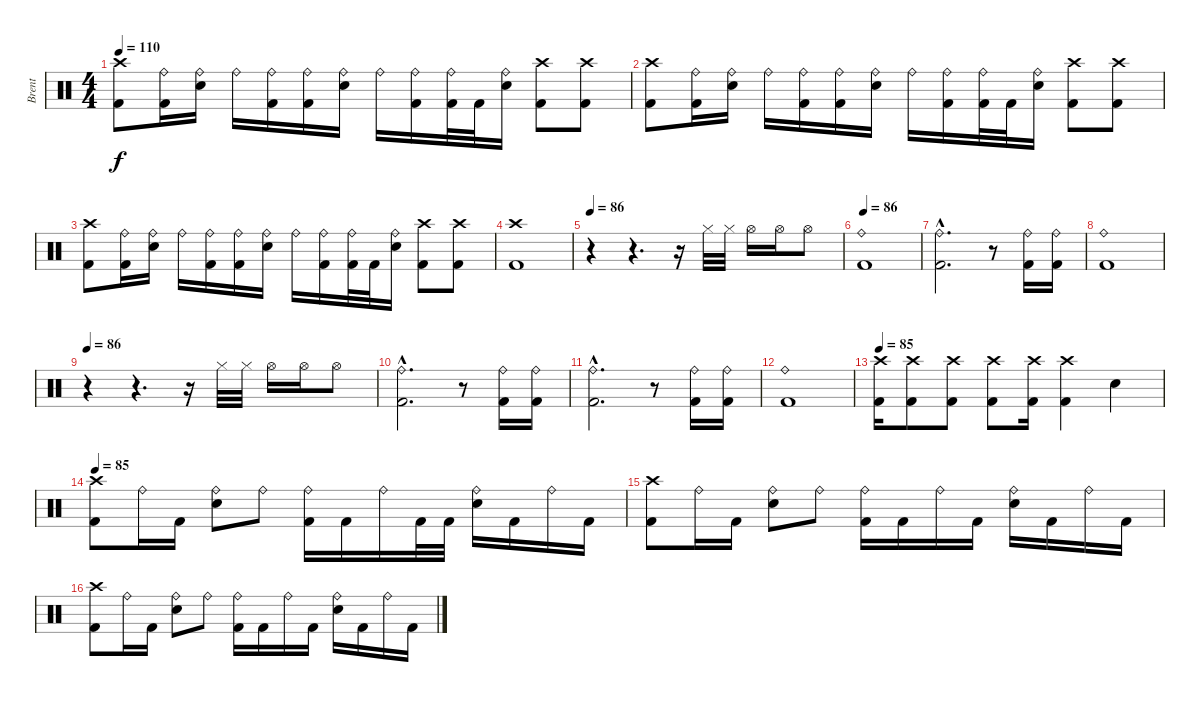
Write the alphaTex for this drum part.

\track ("Brent" "Brent") {instrument percussion}
\staff {score}
\articulation defaults
\ts (4 4)
\tempo 110
\clef neutral
\ks c
("Crash high (hit)" "Kick (hit) 2").8{dy f} ("Ride (bell)" "Kick (hit) 2").16 ("Ride (bell)" "Snare (hit) 2").16 "Ride (bell)".16 ("Ride (bell)" "Kick (hit) 2").16 ("Ride (bell)" "Kick (hit) 2").16 ("Ride (bell)" "Snare (hit) 2").16 "Ride (bell)".16 ("Ride (bell)" "Kick (hit) 2").16 ("Ride (bell)" "Kick (hit) 2").32 "Kick (hit) 2".32 ("Ride (bell)" "Snare (hit) 2").16 ("Crash high (hit)" "Kick (hit) 2").8 ("Crash high (hit)" "Kick (hit) 2").8 |
("Crash high (hit)" "Kick (hit) 2").8 ("Ride (bell)" "Kick (hit) 2").16 ("Ride (bell)" "Snare (hit) 2").16 "Ride (bell)".16 ("Ride (bell)" "Kick (hit) 2").16 ("Ride (bell)" "Kick (hit) 2").16 ("Ride (bell)" "Snare (hit) 2").16 "Ride (bell)".16 ("Ride (bell)" "Kick (hit) 2").16 ("Ride (bell)" "Kick (hit) 2").32 "Kick (hit) 2".32 ("Ride (bell)" "Snare (hit) 2").16 ("Crash high (hit)" "Kick (hit) 2").8 ("Crash high (hit)" "Kick (hit) 2").8 |
("Crash high (hit)" "Kick (hit) 2").8 ("Ride (bell)" "Kick (hit) 2").16 ("Ride (bell)" "Snare (hit) 2").16 "Ride (bell)".16 ("Ride (bell)" "Kick (hit) 2").16 ("Ride (bell)" "Kick (hit) 2").16 ("Ride (bell)" "Snare (hit) 2").16 "Ride (bell)".16 ("Ride (bell)" "Kick (hit) 2").16 ("Ride (bell)" "Kick (hit) 2").32 "Kick (hit) 2".32 ("Ride (bell)" "Snare (hit) 2").16 ("Crash high (hit)" "Kick (hit) 2").8 ("Crash high (hit)" "Kick (hit) 2").8 |
("Crash high (hit)" "Kick (hit) 2").1 |
\tempo 86
r.4 r.4{d} r.16 "Hi-Hat (closed)".32 "Hi-Hat (closed)".32 "Hi-Hat (open)".16 "Hi-Hat (open)".16 "Hi-Hat (open)".8 |
\tempo 86
("Ride (bell)" "Kick (hit) 2").1 |
("Ride (bell)"{hac} "Kick (hit) 2"{hac}).2{d} r.8 ("Ride (bell)" "Kick (hit) 2").16 ("Ride (bell)" "Kick (hit) 2").16 |
("Ride (bell)" "Kick (hit) 2").1 |
\tempo 86
r.4 r.4{d} r.16 "Hi-Hat (closed)".32 "Hi-Hat (closed)".32 "Hi-Hat (open)".16 "Hi-Hat (open)".16 "Hi-Hat (open)".8 |
("Ride (bell)"{hac} "Kick (hit) 2"{hac}).2{d} r.8 ("Ride (bell)" "Kick (hit) 2").16 ("Ride (bell)" "Kick (hit) 2").16 |
("Ride (bell)"{hac} "Kick (hit) 2"{hac}).2{d} r.8 ("Ride (bell)" "Kick (hit) 2").16 ("Ride (bell)" "Kick (hit) 2").16 |
("Ride (bell)" "Kick (hit) 2").1 |
\tempo 85
("Crash high (hit)" "Kick (hit) 2").16 ("Crash high (hit)" "Kick (hit) 2").8 ("Crash high (hit)" "Kick (hit) 2").8 ("Crash high (hit)" "Kick (hit) 2").8 ("Crash high (hit)" "Kick (hit) 2").16 ("Crash high (hit)" "Kick (hit) 2").4 "Snare (hit) 2".4 |
\tempo 85
("Crash high (hit)" "Kick (hit) 2").8 "Ride (bell)".16 "Kick (hit) 2".16 ("Ride (bell)" "Snare (hit) 2").8 "Ride (bell)".8 ("Ride (bell)" "Kick (hit) 2").16 "Kick (hit) 2".16 "Ride (bell)".16 "Kick (hit) 2".32 "Kick (hit) 2".32 ("Ride (bell)" "Snare (hit) 2").16 "Kick (hit) 2".16 "Ride (bell)".16 "Kick (hit) 2".16 |
("Crash high (hit)" "Kick (hit) 2").8 "Ride (bell)".16 "Kick (hit) 2".16 ("Ride (bell)" "Snare (hit) 2").8 "Ride (bell)".8 ("Ride (bell)" "Kick (hit) 2").16 "Kick (hit) 2".16 "Ride (bell)".16 "Kick (hit) 2".16 ("Ride (bell)" "Snare (hit) 2").16 "Kick (hit) 2".16 "Ride (bell)".16 "Kick (hit) 2".16 |
("Crash high (hit)" "Kick (hit) 2").8 "Ride (bell)".16 "Kick (hit) 2".16 ("Ride (bell)" "Snare (hit) 2").8 "Ride (bell)".8 ("Ride (bell)" "Kick (hit) 2").16 "Kick (hit) 2".16 "Ride (bell)".16 "Kick (hit) 2".16 ("Ride (bell)" "Snare (hit) 2").16 "Kick (hit) 2".16 "Ride (bell)".16 "Kick (hit) 2".16
